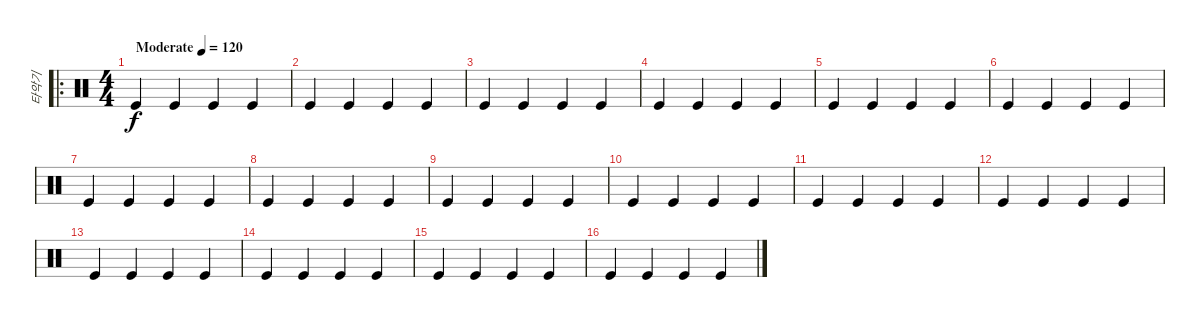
\track ("타악기" "타악기") {instrument percussion}
\staff {score}
\articulation defaults
\ro
\ts (4 4)
\tempo (120 "Moderate")
\clef neutral
\ks c "Kick (hit)".4{dy f} "Kick (hit)".4 "Kick (hit)".4 "Kick (hit)".4
|
"Kick (hit)".4 "Kick (hit)".4 "Kick (hit)".4 "Kick (hit)".4 |
"Kick (hit)".4 "Kick (hit)".4 "Kick (hit)".4 "Kick (hit)".4 |
"Kick (hit)".4 "Kick (hit)".4 "Kick (hit)".4 "Kick (hit)".4 |
"Kick (hit)".4 "Kick (hit)".4 "Kick (hit)".4 "Kick (hit)".4 |
"Kick (hit)".4 "Kick (hit)".4 "Kick (hit)".4 "Kick (hit)".4 |
"Kick (hit)".4 "Kick (hit)".4 "Kick (hit)".4 "Kick (hit)".4 |
"Kick (hit)".4 "Kick (hit)".4 "Kick (hit)".4 "Kick (hit)".4 |
"Kick (hit)".4 "Kick (hit)".4 "Kick (hit)".4 "Kick (hit)".4 |
"Kick (hit)".4 "Kick (hit)".4 "Kick (hit)".4 "Kick (hit)".4 |
"Kick (hit)".4 "Kick (hit)".4 "Kick (hit)".4 "Kick (hit)".4 |
"Kick (hit)".4 "Kick (hit)".4 "Kick (hit)".4 "Kick (hit)".4 |
"Kick (hit)".4 "Kick (hit)".4 "Kick (hit)".4 "Kick (hit)".4 |
"Kick (hit)".4 "Kick (hit)".4 "Kick (hit)".4 "Kick (hit)".4 |
"Kick (hit)".4 "Kick (hit)".4 "Kick (hit)".4 "Kick (hit)".4 |
"Kick (hit)".4 "Kick (hit)".4 "Kick (hit)".4 "Kick (hit)".4
